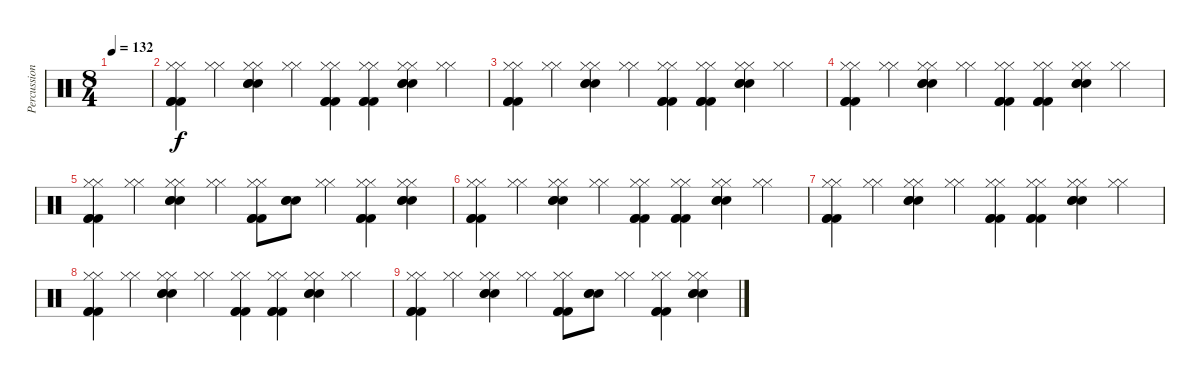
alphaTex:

\track ("Percussions" "Percussion") {instrument percussion}
\staff {score}
\articulation defaults
\ts (8 4)
\tempo 132
\clef neutral
\ks c
|
("Kick (hit) 2" "Kick (hit) 2" "Kick (hit) 2" "Hi-Hat (closed)" "Hi-Hat (closed)").4 ("Hi-Hat (closed)" "Hi-Hat (closed)").4 ("Electric Snare (hit)" "Electric Snare (hit)" "Electric Snare (hit)" "Hi-Hat (closed)" "Hi-Hat (closed)").4 ("Hi-Hat (closed)" "Hi-Hat (closed)").4 ("Kick (hit) 2" "Kick (hit) 2" "Kick (hit) 2" "Hi-Hat (closed)" "Hi-Hat (closed)").4 ("Kick (hit) 2" "Kick (hit) 2" "Kick (hit) 2" "Hi-Hat (closed)" "Hi-Hat (closed)").4 ("Electric Snare (hit)" "Electric Snare (hit)" "Electric Snare (hit)" "Hi-Hat (closed)" "Hi-Hat (closed)").4 ("Hi-Hat (closed)" "Hi-Hat (closed)").4 |
("Kick (hit) 2" "Kick (hit) 2" "Kick (hit) 2" "Hi-Hat (closed)" "Hi-Hat (closed)").4 ("Hi-Hat (closed)" "Hi-Hat (closed)").4 ("Electric Snare (hit)" "Electric Snare (hit)" "Electric Snare (hit)" "Hi-Hat (closed)" "Hi-Hat (closed)").4 ("Hi-Hat (closed)" "Hi-Hat (closed)").4 ("Kick (hit) 2" "Kick (hit) 2" "Kick (hit) 2" "Hi-Hat (closed)" "Hi-Hat (closed)").4 ("Kick (hit) 2" "Kick (hit) 2" "Kick (hit) 2" "Hi-Hat (closed)" "Hi-Hat (closed)").4 ("Electric Snare (hit)" "Electric Snare (hit)" "Electric Snare (hit)" "Hi-Hat (closed)" "Hi-Hat (closed)").4 ("Hi-Hat (closed)" "Hi-Hat (closed)").4 |
("Kick (hit) 2" "Kick (hit) 2" "Kick (hit) 2" "Hi-Hat (closed)" "Hi-Hat (closed)").4 ("Hi-Hat (closed)" "Hi-Hat (closed)").4 ("Electric Snare (hit)" "Electric Snare (hit)" "Electric Snare (hit)" "Hi-Hat (closed)" "Hi-Hat (closed)").4 ("Hi-Hat (closed)" "Hi-Hat (closed)").4 ("Kick (hit) 2" "Kick (hit) 2" "Kick (hit) 2" "Hi-Hat (closed)" "Hi-Hat (closed)").4 ("Kick (hit) 2" "Kick (hit) 2" "Kick (hit) 2" "Hi-Hat (closed)" "Hi-Hat (closed)").4 ("Electric Snare (hit)" "Electric Snare (hit)" "Electric Snare (hit)" "Hi-Hat (closed)" "Hi-Hat (closed)").4 ("Hi-Hat (closed)" "Hi-Hat (closed)").4 |
("Kick (hit) 2" "Kick (hit) 2" "Kick (hit) 2" "Hi-Hat (closed)" "Hi-Hat (closed)").4 ("Hi-Hat (closed)" "Hi-Hat (closed)").4 ("Electric Snare (hit)" "Electric Snare (hit)" "Electric Snare (hit)" "Hi-Hat (closed)" "Hi-Hat (closed)").4 ("Hi-Hat (closed)" "Hi-Hat (closed)").4 ("Kick (hit) 2" "Kick (hit) 2" "Kick (hit) 2" "Hi-Hat (closed)" "Hi-Hat (closed)").8 ("Electric Snare (hit)" "Electric Snare (hit)" "Electric Snare (hit)").8 ("Hi-Hat (closed)" "Hi-Hat (closed)").4 ("Kick (hit) 2" "Kick (hit) 2" "Kick (hit) 2" "Hi-Hat (closed)" "Hi-Hat (closed)").4 ("Electric Snare (hit)" "Electric Snare (hit)" "Electric Snare (hit)" "Hi-Hat (closed)" "Hi-Hat (closed)").4 |
("Kick (hit) 2" "Kick (hit) 2" "Kick (hit) 2" "Hi-Hat (closed)" "Hi-Hat (closed)").4 ("Hi-Hat (closed)" "Hi-Hat (closed)").4 ("Electric Snare (hit)" "Electric Snare (hit)" "Electric Snare (hit)" "Hi-Hat (closed)" "Hi-Hat (closed)").4 ("Hi-Hat (closed)" "Hi-Hat (closed)").4 ("Kick (hit) 2" "Kick (hit) 2" "Kick (hit) 2" "Hi-Hat (closed)" "Hi-Hat (closed)").4 ("Kick (hit) 2" "Kick (hit) 2" "Kick (hit) 2" "Hi-Hat (closed)" "Hi-Hat (closed)").4 ("Electric Snare (hit)" "Electric Snare (hit)" "Electric Snare (hit)" "Hi-Hat (closed)" "Hi-Hat (closed)").4 ("Hi-Hat (closed)" "Hi-Hat (closed)").4 |
("Kick (hit) 2" "Kick (hit) 2" "Kick (hit) 2" "Hi-Hat (closed)" "Hi-Hat (closed)").4 ("Hi-Hat (closed)" "Hi-Hat (closed)").4 ("Electric Snare (hit)" "Electric Snare (hit)" "Electric Snare (hit)" "Hi-Hat (closed)" "Hi-Hat (closed)").4 ("Hi-Hat (closed)" "Hi-Hat (closed)").4 ("Kick (hit) 2" "Kick (hit) 2" "Kick (hit) 2" "Hi-Hat (closed)" "Hi-Hat (closed)").4 ("Kick (hit) 2" "Kick (hit) 2" "Kick (hit) 2" "Hi-Hat (closed)" "Hi-Hat (closed)").4 ("Electric Snare (hit)" "Electric Snare (hit)" "Electric Snare (hit)" "Hi-Hat (closed)" "Hi-Hat (closed)").4 ("Hi-Hat (closed)" "Hi-Hat (closed)").4 |
("Kick (hit) 2" "Kick (hit) 2" "Kick (hit) 2" "Hi-Hat (closed)" "Hi-Hat (closed)").4 ("Hi-Hat (closed)" "Hi-Hat (closed)").4 ("Electric Snare (hit)" "Electric Snare (hit)" "Electric Snare (hit)" "Hi-Hat (closed)" "Hi-Hat (closed)").4 ("Hi-Hat (closed)" "Hi-Hat (closed)").4 ("Kick (hit) 2" "Kick (hit) 2" "Kick (hit) 2" "Hi-Hat (closed)" "Hi-Hat (closed)").4 ("Kick (hit) 2" "Kick (hit) 2" "Kick (hit) 2" "Hi-Hat (closed)" "Hi-Hat (closed)").4 ("Electric Snare (hit)" "Electric Snare (hit)" "Electric Snare (hit)" "Hi-Hat (closed)" "Hi-Hat (closed)").4 ("Hi-Hat (closed)" "Hi-Hat (closed)").4 |
("Kick (hit) 2" "Kick (hit) 2" "Kick (hit) 2" "Hi-Hat (closed)" "Hi-Hat (closed)").4 ("Hi-Hat (closed)" "Hi-Hat (closed)").4 ("Electric Snare (hit)" "Electric Snare (hit)" "Electric Snare (hit)" "Hi-Hat (closed)" "Hi-Hat (closed)").4 ("Hi-Hat (closed)" "Hi-Hat (closed)").4 ("Kick (hit) 2" "Kick (hit) 2" "Kick (hit) 2" "Hi-Hat (closed)" "Hi-Hat (closed)").8 ("Electric Snare (hit)" "Electric Snare (hit)" "Electric Snare (hit)").8 ("Hi-Hat (closed)" "Hi-Hat (closed)").4 ("Kick (hit) 2" "Kick (hit) 2" "Kick (hit) 2" "Hi-Hat (closed)" "Hi-Hat (closed)").4 ("Electric Snare (hit)" "Electric Snare (hit)" "Electric Snare (hit)" "Hi-Hat (closed)" "Hi-Hat (closed)").4
